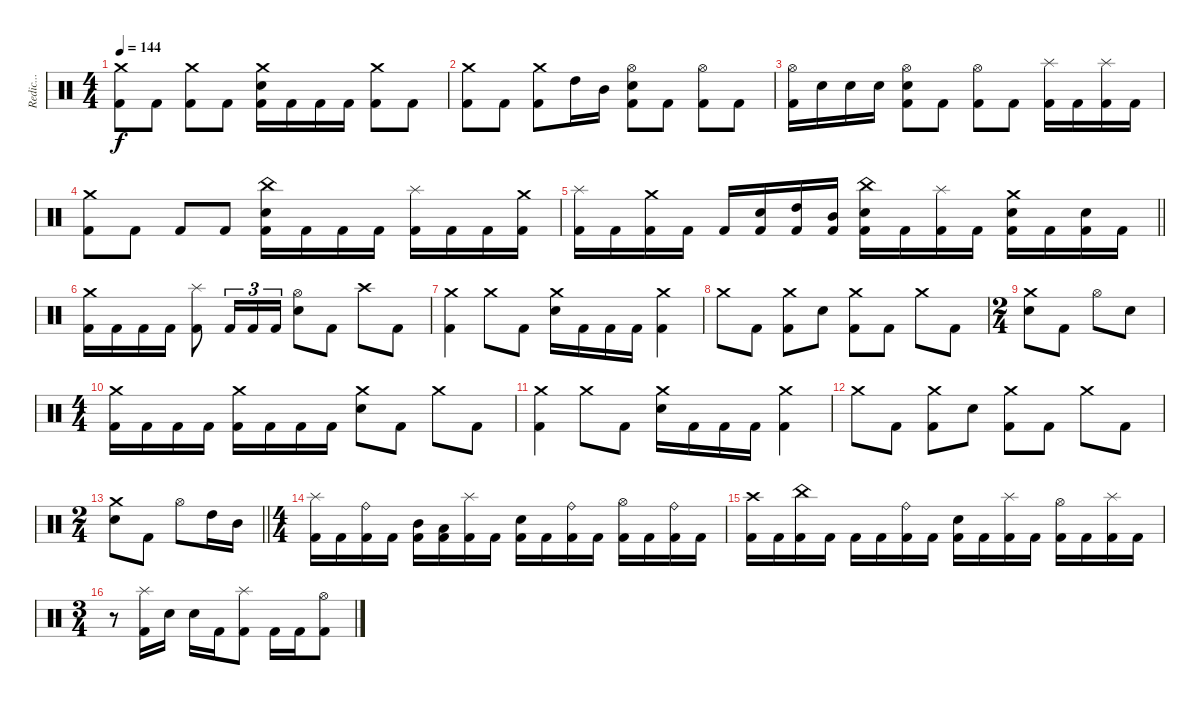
\track ("Redic..." "Redic...") {instrument percussion}
\staff {score}
\articulation defaults
\ts (4 4)
\tempo 144
\clef neutral
\ks c
("Crash medium (hit)" "Kick (hit) 2").8{dy f} "Kick (hit) 2".8 ("Crash medium (hit)" "Kick (hit) 2").8 "Kick (hit) 2".8 ("Crash medium (hit)" "Electric Snare (hit)" "Kick (hit) 2").16 "Kick (hit) 2".16 "Kick (hit) 2".16 "Kick (hit) 2".16 ("Crash medium (hit)" "Kick (hit) 2").8 "Kick (hit) 2".8 |
("Crash medium (hit)" "Kick (hit) 2").8 "Kick (hit) 2".8 ("Crash medium (hit)" "Kick (hit) 2").8 "High Tom (hit)".16 "Mid Tom (hit)".16 ("Hi-Hat (open)" "Electric Snare (hit)" "Kick (hit) 2").8 "Kick (hit) 2".8 ("Hi-Hat (open)" "Kick (hit) 2").8 "Kick (hit) 2".8 |
("Hi-Hat (open)" "Kick (hit) 2").16 "Electric Snare (hit)".16 "Electric Snare (hit)".16 "Electric Snare (hit)".16 ("Hi-Hat (open)" "Electric Snare (hit)" "Kick (hit) 2").8 "Kick (hit) 2".8 ("Hi-Hat (open)" "Kick (hit) 2").8 "Kick (hit) 2".8 ("Splash (hit)" "Kick (hit) 2").16 "Kick (hit) 2".16 ("Splash (hit)" "Kick (hit) 2").16 "Kick (hit) 2".16 |
("Crash medium (hit)" "Kick (hit) 2").8 "Kick (hit) 2".8 "Kick (hit) 2".8 "Kick (hit) 2".8 ("China (hit)" "Electric Snare (hit)" "Kick (hit) 2").16 "Kick (hit) 2".16 "Kick (hit) 2".16 "Kick (hit) 2".16 ("Splash (hit)" "Kick (hit) 2").16 "Kick (hit) 2".16 "Kick (hit) 2".16 ("Crash medium (hit)" "Kick (hit) 2").16 |
\barLineRight lightlight
("Splash (hit)" "Kick (hit) 2").16 "Kick (hit) 2".16 ("Crash medium (hit)" "Kick (hit) 2").16 "Kick (hit) 2".16 "Kick (hit) 2".16 ("Electric Snare (hit)" "Kick (hit) 2").16 ("High Tom (hit)" "Kick (hit) 2").16 ("Mid Tom (hit)" "Kick (hit) 2").16 ("China (hit)" "Electric Snare (hit)" "Kick (hit) 2").16 "Kick (hit) 2".16 ("Splash (hit)" "Kick (hit) 2").16 "Kick (hit) 2".16 ("Crash medium (hit)" "Electric Snare (hit)" "Kick (hit) 2").16 "Kick (hit) 2".16 ("Electric Snare (hit)" "Kick (hit) 2").16 "Kick (hit) 2".16 |
\section ("" "")
("Crash medium (hit)" "Kick (hit) 2").16 "Kick (hit) 2".16 "Kick (hit) 2".16 "Kick (hit) 2".16 ("Splash (hit)" "Kick (hit) 2").8 "Kick (hit) 2".16{tu (3 2)} "Kick (hit) 2".16{tu (3 2)} "Kick (hit) 2".16{tu (3 2)} ("Hi-Hat (open)" "Electric Snare (hit)").8 "Kick (hit) 2".8 "Crash high (hit)".8 "Kick (hit) 2".8 |
("Crash medium (hit)" "Kick (hit) 2").4 "Crash medium (hit)".8 "Kick (hit) 2".8 ("Crash medium (hit)" "Electric Snare (hit)").16 "Kick (hit) 2".16 "Kick (hit) 2".16 "Kick (hit) 2".16 ("Crash medium (hit)" "Kick (hit) 2").4 |
"Crash medium (hit)".8 "Kick (hit) 2".8 ("Crash medium (hit)" "Kick (hit) 2").8 "Electric Snare (hit)".8 ("Crash medium (hit)" "Kick (hit) 2").8 "Kick (hit) 2".8 "Crash medium (hit)".8 "Kick (hit) 2".8 |
\ts (2 4)
("Crash medium (hit)" "Electric Snare (hit)").8 "Kick (hit) 2".8 "Hi-Hat (open)".8 "Electric Snare (hit)".8 |
\ts (4 4)
("Crash medium (hit)" "Kick (hit) 2").16 "Kick (hit) 2".16 "Kick (hit) 2".16 "Kick (hit) 2".16 ("Crash medium (hit)" "Kick (hit) 2").16 "Kick (hit) 2".16 "Kick (hit) 2".16 "Kick (hit) 2".16 ("Crash medium (hit)" "Electric Snare (hit)").8 "Kick (hit) 2".8 "Crash medium (hit)".8 "Kick (hit) 2".8 |
("Crash medium (hit)" "Kick (hit) 2").4 "Crash medium (hit)".8 "Kick (hit) 2".8 ("Crash medium (hit)" "Electric Snare (hit)").16 "Kick (hit) 2".16 "Kick (hit) 2".16 "Kick (hit) 2".16 ("Crash medium (hit)" "Kick (hit) 2").4 |
"Crash medium (hit)".8 "Kick (hit) 2".8 ("Crash medium (hit)" "Kick (hit) 2").8 "Electric Snare (hit)".8 ("Crash medium (hit)" "Kick (hit) 2").8 "Kick (hit) 2".8 "Crash medium (hit)".8 "Kick (hit) 2".8 |
\ts (2 4)
\barLineRight lightlight
("Crash medium (hit)" "Electric Snare (hit)").8 "Kick (hit) 2".8 "Hi-Hat (open)".8 "High Tom (hit)".16 "Mid Tom (hit)".16 |
\ts (4 4)
\section ("" "")
("Splash (hit)" "Kick (hit) 2").16 "Kick (hit) 2".16 ("Ride (bell)" "Kick (hit) 2").16 "Kick (hit) 2".16 ("Mid Tom (hit)" "Kick (hit) 2").16 ("Low Tom (hit)" "Kick (hit) 2").16 ("Splash (hit)" "Kick (hit) 2").16 "Kick (hit) 2".16 ("Electric Snare (hit)" "Kick (hit) 2").16 "Kick (hit) 2".16 ("Ride (bell)" "Kick (hit) 2").16 "Kick (hit) 2".16 ("Hi-Hat (open)" "Kick (hit) 2").16 "Kick (hit) 2".16 ("Ride (bell)" "Kick (hit) 2").16 "Kick (hit) 2".16 |
("Crash high (hit)" "Kick (hit) 2").16 "Kick (hit) 2".16 ("China (hit)" "Kick (hit) 2").16 "Kick (hit) 2".16 "Kick (hit) 2".16 "Kick (hit) 2".16 ("Ride (bell)" "Kick (hit) 2").16 "Kick (hit) 2".16 ("Electric Snare (hit)" "Kick (hit) 2").16 "Kick (hit) 2".16 ("Splash (hit)" "Kick (hit) 2").16 "Kick (hit) 2".16 ("Hi-Hat (open)" "Kick (hit) 2").16 "Kick (hit) 2".16 ("Splash (hit)" "Kick (hit) 2").16 "Kick (hit) 2".16 |
\ts (3 4)
r.8 ("Splash (hit)" "Kick (hit) 2").16 "Electric Snare (hit)".16 "Electric Snare (hit)".16 "Kick (hit) 2".16 ("Splash (hit)" "Kick (hit) 2").8 "Kick (hit) 2".16 "Kick (hit) 2".16 ("Hi-Hat (open)" "Kick (hit) 2").8
